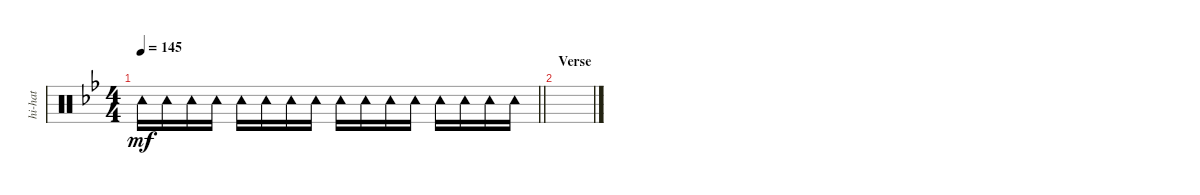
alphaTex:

\track ("hi-hat" "hi-hat") {instrument percussion}
\staff {score}
\articulation defaults
\ts (4 4)
\tempo 145
\clef neutral
\barLineRight lightlight
\ks bb "Tambourine (hit)".16{dy mf} "Tambourine (hit)".16 "Tambourine (hit)".16 "Tambourine (hit)".16 "Tambourine (hit)".16 "Tambourine (hit)".16 "Tambourine (hit)".16 "Tambourine (hit)".16 "Tambourine (hit)".16 "Tambourine (hit)".16 "Tambourine (hit)".16 "Tambourine (hit)".16 "Tambourine (hit)".16 "Tambourine (hit)".16 "Tambourine (hit)".16 "Tambourine (hit)".16
|
\section ("" "Verse")
